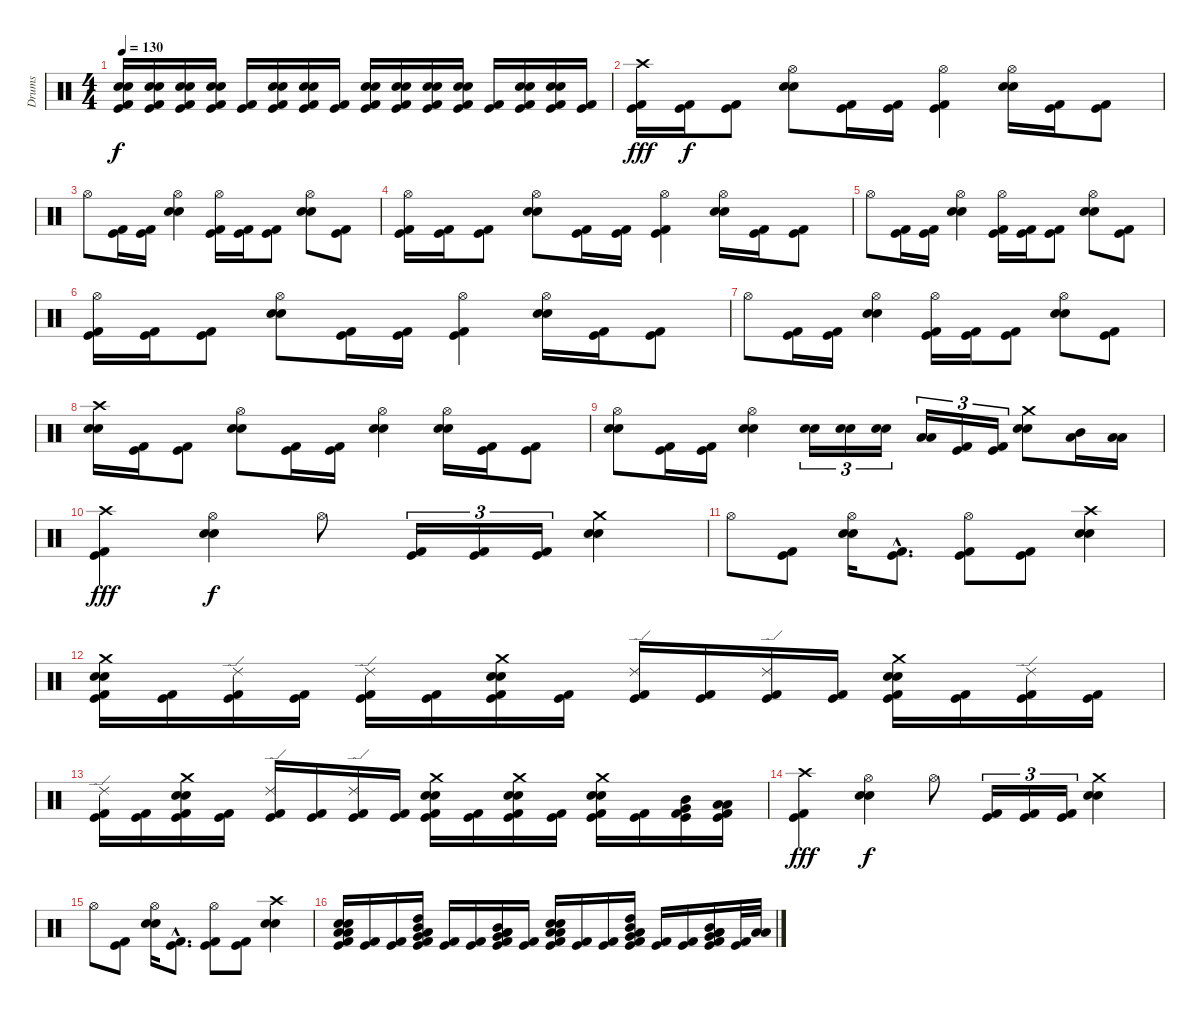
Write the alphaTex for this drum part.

\track ("Drums" "Drums") {instrument percussion}
\staff {score}
\articulation defaults
\ts (4 4)
\tempo 130
\clef neutral
\ks c
("Electric Snare (hit)" "Snare (hit) 2" "Kick (hit) 2" "Kick (hit)").16{dy f} ("Electric Snare (hit)" "Snare (hit) 2" "Kick (hit) 2" "Kick (hit)").16 ("Electric Snare (hit)" "Snare (hit) 2" "Kick (hit) 2" "Kick (hit)").16 ("Electric Snare (hit)" "Snare (hit) 2" "Kick (hit) 2" "Kick (hit)").16 ("Kick (hit) 2" "Kick (hit)").16 ("Electric Snare (hit)" "Snare (hit) 2" "Kick (hit) 2" "Kick (hit)").16 ("Electric Snare (hit)" "Snare (hit) 2" "Kick (hit) 2" "Kick (hit)").16 ("Kick (hit) 2" "Kick (hit)").16 ("Electric Snare (hit)" "Snare (hit) 2" "Kick (hit) 2" "Kick (hit)").16 ("Electric Snare (hit)" "Snare (hit) 2" "Kick (hit) 2" "Kick (hit)").16 ("Electric Snare (hit)" "Snare (hit) 2" "Kick (hit) 2" "Kick (hit)").16 ("Electric Snare (hit)" "Snare (hit) 2" "Kick (hit) 2" "Kick (hit)").16 ("Kick (hit) 2" "Kick (hit)").16 ("Electric Snare (hit)" "Snare (hit) 2" "Kick (hit) 2" "Kick (hit)").16 ("Electric Snare (hit)" "Snare (hit) 2" "Kick (hit) 2" "Kick (hit)").16 ("Kick (hit) 2" "Kick (hit)").16 |
("Crash high (hit)" "Kick (hit) 2" "Kick (hit)").16{dy fff} ("Kick (hit) 2" "Kick (hit)").16{dy f} ("Kick (hit) 2" "Kick (hit)").8 ("Hi-Hat (open)" "Electric Snare (hit)" "Snare (hit) 2").8 ("Kick (hit) 2" "Kick (hit)").16 ("Kick (hit) 2" "Kick (hit)").16 ("Hi-Hat (open)" "Kick (hit) 2" "Kick (hit)").4 ("Hi-Hat (open)" "Electric Snare (hit)" "Snare (hit) 2").16 ("Kick (hit) 2" "Kick (hit)").16 ("Kick (hit) 2" "Kick (hit)").8 |
"Hi-Hat (open)".8 ("Kick (hit) 2" "Kick (hit)").16 ("Kick (hit) 2" "Kick (hit)").16 ("Hi-Hat (open)" "Electric Snare (hit)" "Snare (hit) 2").4 ("Hi-Hat (open)" "Kick (hit) 2" "Kick (hit)").16 ("Kick (hit) 2" "Kick (hit)").16 ("Kick (hit) 2" "Kick (hit)").8 ("Hi-Hat (open)" "Electric Snare (hit)" "Snare (hit) 2").8 ("Kick (hit) 2" "Kick (hit)").8 |
("Hi-Hat (open)" "Kick (hit) 2" "Kick (hit)").16 ("Kick (hit) 2" "Kick (hit)").16 ("Kick (hit) 2" "Kick (hit)").8 ("Hi-Hat (open)" "Electric Snare (hit)" "Snare (hit) 2").8 ("Kick (hit) 2" "Kick (hit)").16 ("Kick (hit) 2" "Kick (hit)").16 ("Hi-Hat (open)" "Kick (hit) 2" "Kick (hit)").4 ("Hi-Hat (open)" "Electric Snare (hit)" "Snare (hit) 2").16 ("Kick (hit) 2" "Kick (hit)").16 ("Kick (hit) 2" "Kick (hit)").8 |
"Hi-Hat (open)".8 ("Kick (hit) 2" "Kick (hit)").16 ("Kick (hit) 2" "Kick (hit)").16 ("Hi-Hat (open)" "Electric Snare (hit)" "Snare (hit) 2").4 ("Hi-Hat (open)" "Kick (hit) 2" "Kick (hit)").16 ("Kick (hit) 2" "Kick (hit)").16 ("Kick (hit) 2" "Kick (hit)").8 ("Hi-Hat (open)" "Electric Snare (hit)" "Snare (hit) 2").8 ("Kick (hit) 2" "Kick (hit)").8 |
("Hi-Hat (open)" "Kick (hit) 2" "Kick (hit)").16 ("Kick (hit) 2" "Kick (hit)").16 ("Kick (hit) 2" "Kick (hit)").8 ("Hi-Hat (open)" "Electric Snare (hit)" "Snare (hit) 2").8 ("Kick (hit) 2" "Kick (hit)").16 ("Kick (hit) 2" "Kick (hit)").16 ("Hi-Hat (open)" "Kick (hit) 2" "Kick (hit)").4 ("Hi-Hat (open)" "Electric Snare (hit)" "Snare (hit) 2").16 ("Kick (hit) 2" "Kick (hit)").16 ("Kick (hit) 2" "Kick (hit)").8 |
"Hi-Hat (open)".8 ("Kick (hit) 2" "Kick (hit)").16 ("Kick (hit) 2" "Kick (hit)").16 ("Hi-Hat (open)" "Electric Snare (hit)" "Snare (hit) 2").4 ("Hi-Hat (open)" "Kick (hit) 2" "Kick (hit)").16 ("Kick (hit) 2" "Kick (hit)").16 ("Kick (hit) 2" "Kick (hit)").8 ("Hi-Hat (open)" "Electric Snare (hit)" "Snare (hit) 2").8 ("Kick (hit) 2" "Kick (hit)").8 |
("Crash high (hit)" "Electric Snare (hit)" "Snare (hit) 2").16 ("Kick (hit) 2" "Kick (hit)").16 ("Kick (hit) 2" "Kick (hit)").8 ("Hi-Hat (open)" "Electric Snare (hit)" "Snare (hit) 2").8 ("Kick (hit) 2" "Kick (hit)").16 ("Kick (hit) 2" "Kick (hit)").16 ("Hi-Hat (open)" "Electric Snare (hit)" "Snare (hit) 2").4 ("Hi-Hat (open)" "Electric Snare (hit)" "Snare (hit) 2").16 ("Kick (hit) 2" "Kick (hit)").16 ("Kick (hit) 2" "Kick (hit)").8 |
("Hi-Hat (open)" "Electric Snare (hit)" "Snare (hit) 2").8 ("Kick (hit) 2" "Kick (hit)").16 ("Kick (hit) 2" "Kick (hit)").16 ("Hi-Hat (open)" "Electric Snare (hit)" "Snare (hit) 2").4 ("Electric Snare (hit)" "Snare (hit) 2").16{tu (3 2)} ("Electric Snare (hit)" "Snare (hit) 2").16{tu (3 2)} ("Electric Snare (hit)" "Snare (hit) 2").16{tu (3 2)} ("Low Tom (hit)" "Low Floor Tom (hit)").16{tu (3 2)} ("Kick (hit) 2" "Kick (hit)").16{tu (3 2)} ("Kick (hit) 2" "Kick (hit)").16{tu (3 2)} ("Crash medium (hit)" "Electric Snare (hit)" "Snare (hit) 2").8 ("Mid Tom (hit)" "Low Floor Tom (hit)").16 ("Low Tom (hit)" "Low Floor Tom (hit)").16 |
("Crash high (hit)" "Kick (hit) 2" "Kick (hit)").4{dy fff} ("Hi-Hat (open)" "Electric Snare (hit)" "Snare (hit) 2").4{dy f} "Hi-Hat (open)".8 ("Kick (hit) 2" "Kick (hit)").16{tu (3 2)} ("Kick (hit) 2" "Kick (hit)").16{tu (3 2)} ("Kick (hit) 2" "Kick (hit)").16{tu (3 2)} ("Crash medium (hit)" "Electric Snare (hit)" "Snare (hit) 2").4 |
"Hi-Hat (open)".8 ("Kick (hit) 2" "Kick (hit)").8 ("Hi-Hat (open)" "Electric Snare (hit)" "Snare (hit) 2").16 ("Kick (hit) 2"{hac} "Kick (hit)"{hac}).8{d} ("Hi-Hat (open)" "Kick (hit) 2" "Kick (hit)").8 ("Kick (hit) 2" "Kick (hit)").8 ("Crash high (hit)" "Electric Snare (hit)" "Snare (hit) 2").4 |
("Crash medium (hit)" "Electric Snare (hit)" "Snare (hit) 2" "Kick (hit) 2" "Kick (hit)").16 ("Kick (hit) 2" "Kick (hit)").16 ("Ride (edge) 2" "Kick (hit) 2" "Kick (hit)").16 ("Kick (hit) 2" "Kick (hit)").16 ("Ride (edge) 2" "Kick (hit) 2" "Kick (hit)").16 ("Kick (hit) 2" "Kick (hit)").16 ("Crash medium (hit)" "Electric Snare (hit)" "Snare (hit) 2" "Kick (hit) 2" "Kick (hit)").16 ("Kick (hit) 2" "Kick (hit)").16 ("Ride (edge) 2" "Kick (hit) 2" "Kick (hit)").16 ("Kick (hit) 2" "Kick (hit)").16 ("Ride (edge) 2" "Kick (hit) 2" "Kick (hit)").16 ("Kick (hit) 2" "Kick (hit)").16 ("Crash medium (hit)" "Electric Snare (hit)" "Snare (hit) 2" "Kick (hit) 2" "Kick (hit)").16 ("Kick (hit) 2" "Kick (hit)").16 ("Ride (edge) 2" "Kick (hit) 2" "Kick (hit)").16 ("Kick (hit) 2" "Kick (hit)").16 |
("Ride (edge) 2" "Kick (hit) 2" "Kick (hit)").16 ("Kick (hit) 2" "Kick (hit)").16 ("Crash medium (hit)" "Electric Snare (hit)" "Snare (hit) 2" "Kick (hit) 2" "Kick (hit)").16 ("Kick (hit) 2" "Kick (hit)").16 ("Ride (edge) 2" "Kick (hit) 2" "Kick (hit)").16 ("Kick (hit) 2" "Kick (hit)").16 ("Ride (edge) 2" "Kick (hit) 2" "Kick (hit)").16 ("Kick (hit) 2" "Kick (hit)").16 ("Crash medium (hit)" "Electric Snare (hit)" "Snare (hit) 2" "Kick (hit) 2" "Kick (hit)").16 ("Kick (hit) 2" "Kick (hit)").16 ("Crash medium (hit)" "Electric Snare (hit)" "Snare (hit) 2" "Kick (hit) 2" "Kick (hit)").16 ("Kick (hit) 2" "Kick (hit)").16 ("Crash medium (hit)" "Electric Snare (hit)" "Snare (hit) 2" "Kick (hit) 2" "Kick (hit)").16 ("Kick (hit) 2" "Kick (hit)").16 ("Mid Tom (hit)" "Very Low Tom (hit)" "Kick (hit) 2" "Kick (hit)").16 ("Low Tom (hit)" "Low Floor Tom (hit)" "Kick (hit) 2" "Kick (hit)").16 |
("Crash high (hit)" "Kick (hit) 2" "Kick (hit)").4{dy fff} ("Hi-Hat (open)" "Electric Snare (hit)" "Snare (hit) 2").4{dy f} "Hi-Hat (open)".8 ("Kick (hit) 2" "Kick (hit)").16{tu (3 2)} ("Kick (hit) 2" "Kick (hit)").16{tu (3 2)} ("Kick (hit) 2" "Kick (hit)").16{tu (3 2)} ("Crash medium (hit)" "Electric Snare (hit)" "Snare (hit) 2").4 |
"Hi-Hat (open)".8 ("Kick (hit) 2" "Kick (hit)").8 ("Hi-Hat (open)" "Electric Snare (hit)" "Snare (hit) 2").16 ("Kick (hit) 2"{hac} "Kick (hit)"{hac}).8{d} ("Hi-Hat (open)" "Kick (hit) 2" "Kick (hit)").8 ("Kick (hit) 2" "Kick (hit)").8 ("Crash high (hit)" "Electric Snare (hit)" "Snare (hit) 2").4 |
("Low Tom (hit)" "Low Floor Tom (hit)" "Electric Snare (hit)" "Snare (hit) 2" "Kick (hit) 2" "Kick (hit)").16 ("Kick (hit) 2" "Kick (hit)").16 ("Kick (hit) 2" "Kick (hit)").16 ("High Tom (hit)" "Low Tom (hit)" "Mid Tom (hit)" "Very Low Tom (hit)" "Kick (hit) 2" "Kick (hit)").16 ("Kick (hit) 2" "Kick (hit)").16 ("Kick (hit) 2" "Kick (hit)").16 ("Mid Tom (hit)" "Very Low Tom (hit)" "Low Tom (hit)" "Low Floor Tom (hit)" "Kick (hit) 2" "Kick (hit)").16 ("Kick (hit) 2" "Kick (hit)").16 ("Low Tom (hit)" "Low Floor Tom (hit)" "Electric Snare (hit)" "Snare (hit) 2" "Kick (hit) 2" "Kick (hit)").16 ("Kick (hit) 2" "Kick (hit)").16 ("Kick (hit) 2" "Kick (hit)").16 ("High Tom (hit)" "Low Tom (hit)" "Mid Tom (hit)" "Very Low Tom (hit)" "Kick (hit) 2" "Kick (hit)").16 ("Kick (hit) 2" "Kick (hit)").16 ("Kick (hit) 2" "Kick (hit)").16 ("Mid Tom (hit)" "Very Low Tom (hit)" "Low Tom (hit)" "Low Floor Tom (hit)" "Kick (hit) 2" "Kick (hit)").16 ("Kick (hit) 2" "Kick (hit)").32 ("Low Tom (hit)" "Low Floor Tom (hit)").32
